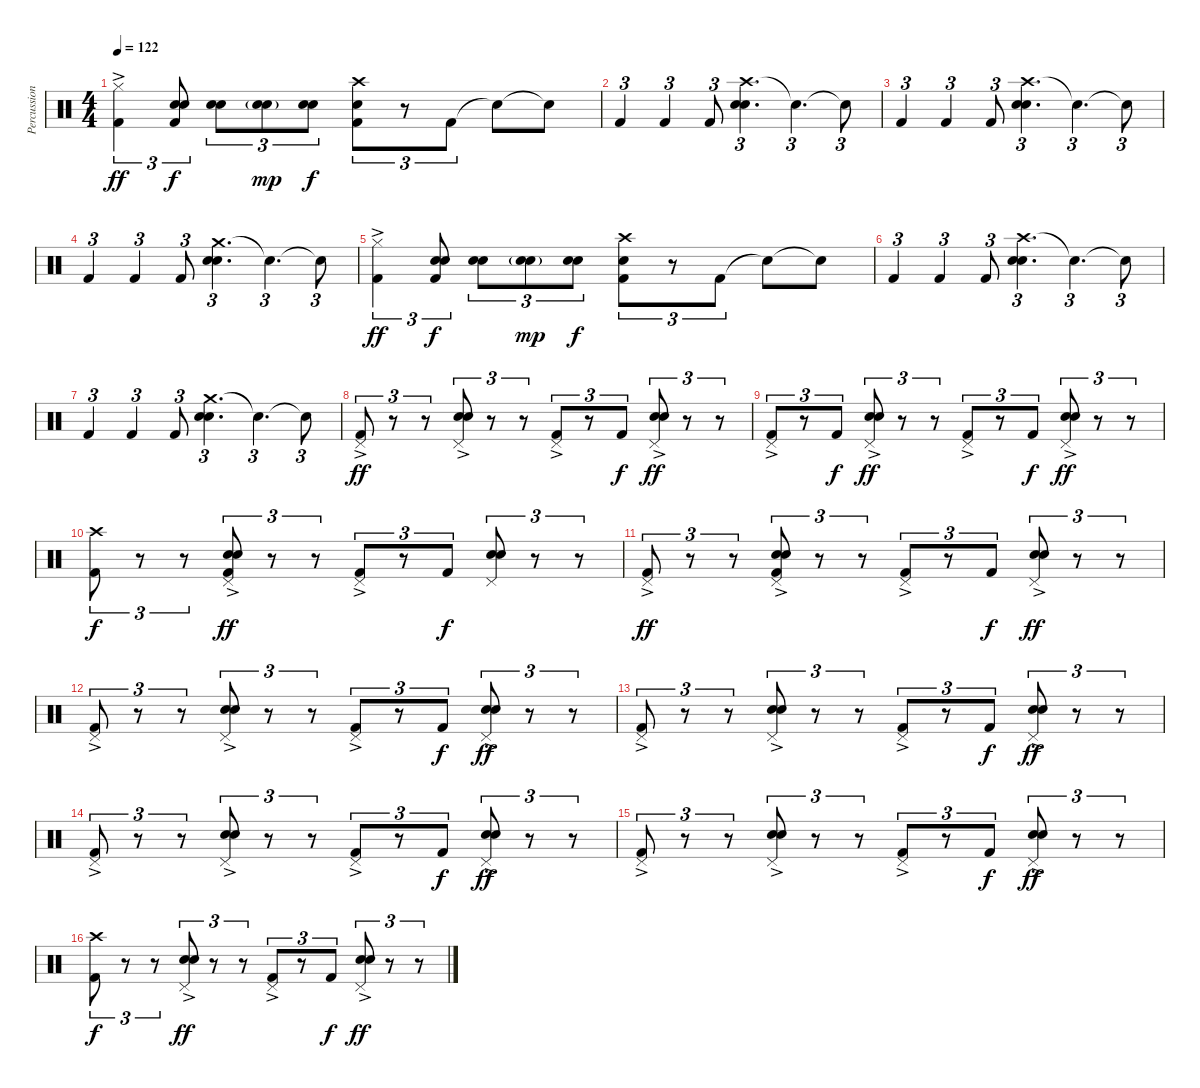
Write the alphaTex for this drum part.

\track ("Percussion" "Percussion") {instrument percussion}
\staff {score}
\articulation defaults
\ts (4 4)
\tempo 122
\clef neutral
\ks c
("Hi-Hat (closed)"{ac} "Kick (hit) 2").4{tu (3 2) dy ff} ("Electric Snare (hit)" "Snare (hit) 2" "Kick (hit) 2").8{tu (3 2) dy f} ("Electric Snare (hit)" "Snare (hit) 2").8{tu (3 2)} ("Electric Snare (hit)"{g} "Snare (hit) 2"{g}).8{tu (3 2) dy mp} ("Electric Snare (hit)" "Snare (hit) 2").8{tu (3 2) dy f} ("Crash high (hit)" "Snare (hit) 2" "Kick (hit) 2").8{tu (3 2)} r.8{tu (3 2)} "Kick (hit) 2".8{tu (3 2)} "Snare (hit)"{t}.8 "Snare (hit)"{t}.8 |
"Kick (hit) 2".4{tu (3 2)} "Kick (hit) 2".4{tu (3 2)} "Kick (hit) 2".8{tu (3 2)} ("Crash high (hit)" "Snare (hit) 2" "Electric Snare (hit)").4{d tu (3 2)} "Snare (hit)"{t}.4{d tu (3 2)} "Snare (hit)"{t}.8{tu (3 2)} |
"Kick (hit) 2".4{tu (3 2)} "Kick (hit) 2".4{tu (3 2)} "Kick (hit) 2".8{tu (3 2)} ("Crash high (hit)" "Snare (hit) 2" "Electric Snare (hit)").4{d tu (3 2)} "Snare (hit)"{t}.4{d tu (3 2)} "Snare (hit)"{t}.8{tu (3 2)} |
"Kick (hit) 2".4{tu (3 2)} "Kick (hit) 2".4{tu (3 2)} "Kick (hit) 2".8{tu (3 2)} ("Crash medium (hit)" "Snare (hit) 2" "Electric Snare (hit)").4{d tu (3 2)} "Snare (hit)"{t}.4{d tu (3 2)} "Snare (hit)"{t}.8{tu (3 2)} |
("Hi-Hat (closed)"{ac} "Kick (hit) 2").4{tu (3 2) dy ff} ("Electric Snare (hit)" "Snare (hit) 2" "Kick (hit) 2").8{tu (3 2) dy f} ("Electric Snare (hit)" "Snare (hit) 2").8{tu (3 2)} ("Electric Snare (hit)"{g} "Snare (hit) 2"{g}).8{tu (3 2) dy mp} ("Electric Snare (hit)" "Snare (hit) 2").8{tu (3 2) dy f} ("Crash high (hit)" "Snare (hit) 2" "Kick (hit) 2").8{tu (3 2)} r.8{tu (3 2)} "Kick (hit) 2".8{tu (3 2)} "Snare (hit)"{t}.8 "Snare (hit)"{t}.8 |
"Kick (hit) 2".4{tu (3 2)} "Kick (hit) 2".4{tu (3 2)} "Kick (hit) 2".8{tu (3 2)} ("Crash high (hit)" "Snare (hit) 2" "Electric Snare (hit)").4{d tu (3 2)} "Snare (hit)"{t}.4{d tu (3 2)} "Snare (hit)"{t}.8{tu (3 2)} |
"Kick (hit) 2".4{tu (3 2)} "Kick (hit) 2".4{tu (3 2)} "Kick (hit) 2".8{tu (3 2)} ("Crash medium (hit)" "Snare (hit) 2" "Electric Snare (hit)").4{d tu (3 2)} "Snare (hit)"{t}.4{d tu (3 2)} "Snare (hit)"{t}.8{tu (3 2)} |
("Pedal Hi-Hat (hit)"{ac} "Kick (hit) 2").8{tu (3 2) dy ff} r.8{tu (3 2)} r.8{tu (3 2)} ("Pedal Hi-Hat (hit)"{ac} "Snare (hit) 2" "Electric Snare (hit)").8{tu (3 2)} r.8{tu (3 2)} r.8{tu (3 2)} ("Pedal Hi-Hat (hit)"{ac} "Kick (hit) 2").8{tu (3 2)} r.8{tu (3 2)} "Kick (hit) 2".8{tu (3 2) dy f} ("Pedal Hi-Hat (hit)"{ac} "Snare (hit) 2" "Electric Snare (hit)").8{tu (3 2) dy ff} r.8{tu (3 2)} r.8{tu (3 2)} |
("Pedal Hi-Hat (hit)"{ac} "Kick (hit) 2").8{tu (3 2)} r.8{tu (3 2)} "Kick (hit) 2".8{tu (3 2) dy f} ("Pedal Hi-Hat (hit)"{ac} "Snare (hit) 2" "Electric Snare (hit)").8{tu (3 2) dy ff} r.8{tu (3 2)} r.8{tu (3 2)} ("Pedal Hi-Hat (hit)"{ac} "Kick (hit) 2").8{tu (3 2)} r.8{tu (3 2)} "Kick (hit) 2".8{tu (3 2) dy f} ("Pedal Hi-Hat (hit)"{ac} "Snare (hit) 2" "Electric Snare (hit)").8{tu (3 2) dy ff} r.8{tu (3 2)} r.8{tu (3 2)} |
("Crash high (hit)" "Kick (hit) 2").8{tu (3 2) dy f} r.8{tu (3 2)} r.8{tu (3 2)} ("Pedal Hi-Hat (hit)"{ac} "Snare (hit) 2" "Electric Snare (hit)" "Kick (hit) 2").8{tu (3 2) dy ff} r.8{tu (3 2)} r.8{tu (3 2)} ("Pedal Hi-Hat (hit)"{ac} "Kick (hit) 2").8{tu (3 2)} r.8{tu (3 2)} "Kick (hit) 2".8{tu (3 2) dy f} ("Pedal Hi-Hat (hit)" "Snare (hit) 2" "Electric Snare (hit)").8{tu (3 2)} r.8{tu (3 2)} r.8{tu (3 2)} |
("Pedal Hi-Hat (hit)"{ac} "Kick (hit) 2").8{tu (3 2) dy ff} r.8{tu (3 2)} r.8{tu (3 2)} ("Pedal Hi-Hat (hit)"{ac} "Snare (hit) 2" "Electric Snare (hit)" "Kick (hit) 2").8{tu (3 2)} r.8{tu (3 2)} r.8{tu (3 2)} ("Pedal Hi-Hat (hit)"{ac} "Kick (hit) 2").8{tu (3 2)} r.8{tu (3 2)} "Kick (hit) 2".8{tu (3 2) dy f} ("Pedal Hi-Hat (hit)"{ac} "Snare (hit) 2" "Electric Snare (hit)").8{tu (3 2) dy ff} r.8{tu (3 2)} r.8{tu (3 2)} |
("Pedal Hi-Hat (hit)"{ac} "Kick (hit) 2").8{tu (3 2)} r.8{tu (3 2)} r.8{tu (3 2)} ("Pedal Hi-Hat (hit)"{ac} "Snare (hit) 2" "Electric Snare (hit)").8{tu (3 2)} r.8{tu (3 2)} r.8{tu (3 2)} ("Pedal Hi-Hat (hit)"{ac} "Kick (hit) 2").8{tu (3 2)} r.8{tu (3 2)} "Kick (hit) 2".8{tu (3 2) dy f} ("Pedal Hi-Hat (hit)"{ac} "Snare (hit) 2" "Electric Snare (hit)").8{tu (3 2) dy ff} r.8{tu (3 2)} r.8{tu (3 2)} |
("Pedal Hi-Hat (hit)"{ac} "Kick (hit) 2").8{tu (3 2)} r.8{tu (3 2)} r.8{tu (3 2)} ("Pedal Hi-Hat (hit)"{ac} "Snare (hit) 2" "Electric Snare (hit)").8{tu (3 2)} r.8{tu (3 2)} r.8{tu (3 2)} ("Pedal Hi-Hat (hit)"{ac} "Kick (hit) 2").8{tu (3 2)} r.8{tu (3 2)} "Kick (hit) 2".8{tu (3 2) dy f} ("Pedal Hi-Hat (hit)"{ac} "Snare (hit) 2" "Electric Snare (hit)").8{tu (3 2) dy ff} r.8{tu (3 2)} r.8{tu (3 2)} |
("Pedal Hi-Hat (hit)"{ac} "Kick (hit) 2").8{tu (3 2)} r.8{tu (3 2)} r.8{tu (3 2)} ("Pedal Hi-Hat (hit)"{ac} "Snare (hit) 2" "Electric Snare (hit)").8{tu (3 2)} r.8{tu (3 2)} r.8{tu (3 2)} ("Pedal Hi-Hat (hit)"{ac} "Kick (hit) 2").8{tu (3 2)} r.8{tu (3 2)} "Kick (hit) 2".8{tu (3 2) dy f} ("Pedal Hi-Hat (hit)"{ac} "Snare (hit) 2" "Electric Snare (hit)").8{tu (3 2) dy ff} r.8{tu (3 2)} r.8{tu (3 2)} |
("Pedal Hi-Hat (hit)"{ac} "Kick (hit) 2").8{tu (3 2)} r.8{tu (3 2)} r.8{tu (3 2)} ("Pedal Hi-Hat (hit)"{ac} "Snare (hit) 2" "Electric Snare (hit)").8{tu (3 2)} r.8{tu (3 2)} r.8{tu (3 2)} ("Pedal Hi-Hat (hit)"{ac} "Kick (hit) 2").8{tu (3 2)} r.8{tu (3 2)} "Kick (hit) 2".8{tu (3 2) dy f} ("Pedal Hi-Hat (hit)"{ac} "Snare (hit) 2" "Electric Snare (hit)").8{tu (3 2) dy ff} r.8{tu (3 2)} r.8{tu (3 2)} |
("Crash high (hit)" "Kick (hit) 2").8{tu (3 2) dy f} r.8{tu (3 2)} r.8{tu (3 2)} ("Pedal Hi-Hat (hit)"{ac} "Snare (hit) 2" "Electric Snare (hit)").8{tu (3 2) dy ff} r.8{tu (3 2)} r.8{tu (3 2)} ("Pedal Hi-Hat (hit)"{ac} "Kick (hit) 2").8{tu (3 2)} r.8{tu (3 2)} "Kick (hit) 2".8{tu (3 2) dy f} ("Pedal Hi-Hat (hit)"{ac} "Snare (hit) 2" "Electric Snare (hit)").8{tu (3 2) dy ff} r.8{tu (3 2)} r.8{tu (3 2)}
